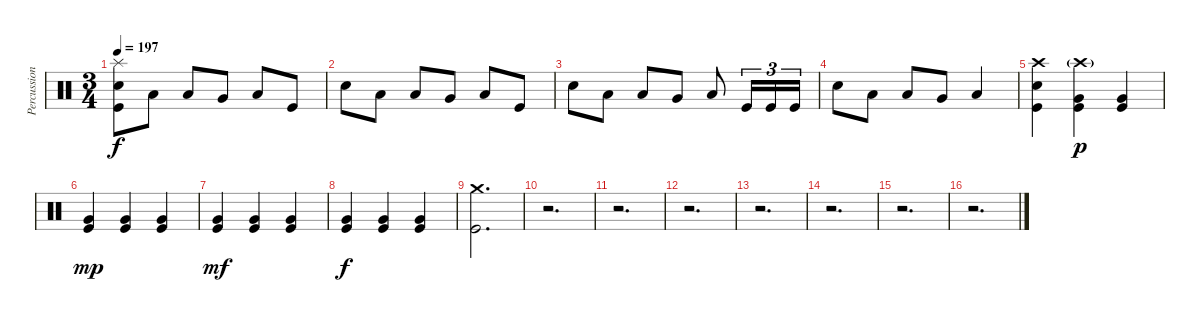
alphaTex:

\track ("Percussion" "Percussion") {instrument percussion}
\staff {score}
\articulation defaults
\ts (3 4)
\tempo 197
\clef neutral
\ks c
("Splash (hit)" "Electric Snare (hit)" "Kick (hit)").8{dy f} "Low Tom (hit)".8 "Low Tom (hit)".8 "Very Low Tom (hit)".8 "Low Tom (hit)".8 "Kick (hit)".8 |
"Electric Snare (hit)".8 "Low Tom (hit)".8 "Low Tom (hit)".8 "Very Low Tom (hit)".8 "Low Tom (hit)".8 "Kick (hit)".8 |
"Electric Snare (hit)".8 "Low Tom (hit)".8 "Low Tom (hit)".8 "Very Low Tom (hit)".8 "Low Tom (hit)".8 "Kick (hit)".16{tu (3 2)} "Kick (hit)".16{tu (3 2)} "Kick (hit)".16{tu (3 2)} |
"Electric Snare (hit)".8 "Low Tom (hit)".8 "Low Tom (hit)".8 "Very Low Tom (hit)".8 "Low Tom (hit)".4 |
("Crash high (hit)" "Electric Snare (hit)" "Kick (hit)").4 ("Crash high (hit)"{g} "Very Low Tom (hit)" "Kick (hit)").4{dy p} ("Very Low Tom (hit)" "Kick (hit)").4 |
("Very Low Tom (hit)" "Kick (hit)").4{dy mp} ("Very Low Tom (hit)" "Kick (hit)").4 ("Very Low Tom (hit)" "Kick (hit)").4 |
("Very Low Tom (hit)" "Kick (hit)").4{dy mf} ("Very Low Tom (hit)" "Kick (hit)").4 ("Very Low Tom (hit)" "Kick (hit)").4 |
("Very Low Tom (hit)" "Kick (hit)").4{dy f} ("Very Low Tom (hit)" "Kick (hit)").4 ("Very Low Tom (hit)" "Kick (hit)").4 |
("Crash medium (hit)" "Kick (hit)").2{d} |
r.2{d} |
r.2{d} |
r.2{d} |
r.2{d} |
r.2{d} |
r.2{d} |
r.2{d}
